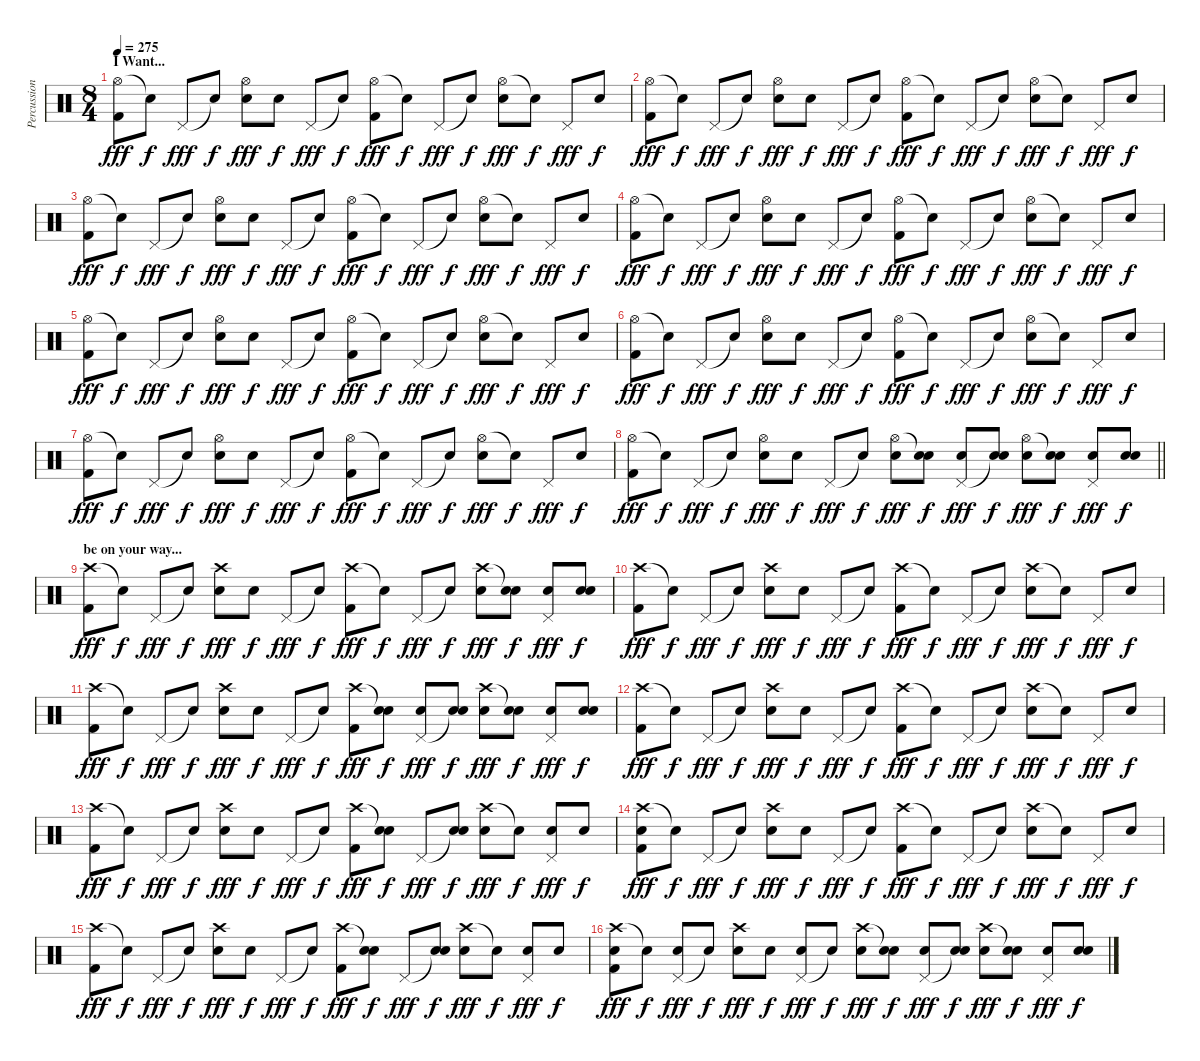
\track ("Percussion" "Percussion") {instrument percussion}
\staff {score}
\articulation defaults
\ts (8 4)
\section ("" "I Want...")
\tempo 275
\clef neutral
\ks c
("Hi-Hat (open)" "Kick (hit) 2").8{dy fff} "Snare (hit)"{t}.8{dy f} "Pedal Hi-Hat (hit)".8{dy fff} "Snare (hit)"{t}.8{dy f} ("Hi-Hat (open)" "Electric Snare (hit)").8{dy fff} "Snare (hit)".8{dy f} "Pedal Hi-Hat (hit)".8{dy fff} "Snare (hit)"{t}.8{dy f} ("Hi-Hat (open)" "Kick (hit) 2").8{dy fff} "Snare (hit)"{t}.8{dy f} "Pedal Hi-Hat (hit)".8{dy fff} "Snare (hit)"{t}.8{dy f} ("Hi-Hat (open)" "Electric Snare (hit)").8{dy fff} "Snare (hit)"{t}.8{dy f} "Pedal Hi-Hat (hit)".8{dy fff} "Snare (hit)".8{dy f} |
("Hi-Hat (open)" "Kick (hit) 2").8{dy fff} "Snare (hit)"{t}.8{dy f} "Pedal Hi-Hat (hit)".8{dy fff} "Snare (hit)"{t}.8{dy f} ("Hi-Hat (open)" "Electric Snare (hit)").8{dy fff} "Snare (hit)".8{dy f} "Pedal Hi-Hat (hit)".8{dy fff} "Snare (hit)"{t}.8{dy f} ("Hi-Hat (open)" "Kick (hit) 2").8{dy fff} "Snare (hit)"{t}.8{dy f} "Pedal Hi-Hat (hit)".8{dy fff} "Snare (hit)"{t}.8{dy f} ("Hi-Hat (open)" "Electric Snare (hit)").8{dy fff} "Snare (hit)"{t}.8{dy f} "Pedal Hi-Hat (hit)".8{dy fff} "Snare (hit)".8{dy f} |
("Hi-Hat (open)" "Kick (hit) 2").8{dy fff} "Snare (hit)"{t}.8{dy f} "Pedal Hi-Hat (hit)".8{dy fff} "Snare (hit)"{t}.8{dy f} ("Hi-Hat (open)" "Electric Snare (hit)").8{dy fff} "Snare (hit)".8{dy f} "Pedal Hi-Hat (hit)".8{dy fff} "Snare (hit)"{t}.8{dy f} ("Hi-Hat (open)" "Kick (hit) 2").8{dy fff} "Snare (hit)"{t}.8{dy f} "Pedal Hi-Hat (hit)".8{dy fff} "Snare (hit)"{t}.8{dy f} ("Hi-Hat (open)" "Electric Snare (hit)").8{dy fff} "Snare (hit)"{t}.8{dy f} "Pedal Hi-Hat (hit)".8{dy fff} "Snare (hit)".8{dy f} |
("Hi-Hat (open)" "Kick (hit) 2").8{dy fff} "Snare (hit)"{t}.8{dy f} "Pedal Hi-Hat (hit)".8{dy fff} "Snare (hit)"{t}.8{dy f} ("Hi-Hat (open)" "Electric Snare (hit)").8{dy fff} "Snare (hit)".8{dy f} "Pedal Hi-Hat (hit)".8{dy fff} "Snare (hit)"{t}.8{dy f} ("Hi-Hat (open)" "Kick (hit) 2").8{dy fff} "Snare (hit)"{t}.8{dy f} "Pedal Hi-Hat (hit)".8{dy fff} "Snare (hit)"{t}.8{dy f} ("Hi-Hat (open)" "Electric Snare (hit)").8{dy fff} "Snare (hit)"{t}.8{dy f} "Pedal Hi-Hat (hit)".8{dy fff} "Snare (hit)".8{dy f} |
("Hi-Hat (open)" "Kick (hit) 2").8{dy fff} "Snare (hit)"{t}.8{dy f} "Pedal Hi-Hat (hit)".8{dy fff} "Snare (hit)"{t}.8{dy f} ("Hi-Hat (open)" "Electric Snare (hit)").8{dy fff} "Snare (hit)".8{dy f} "Pedal Hi-Hat (hit)".8{dy fff} "Snare (hit)"{t}.8{dy f} ("Hi-Hat (open)" "Kick (hit) 2").8{dy fff} "Snare (hit)"{t}.8{dy f} "Pedal Hi-Hat (hit)".8{dy fff} "Snare (hit)"{t}.8{dy f} ("Hi-Hat (open)" "Electric Snare (hit)").8{dy fff} "Snare (hit)"{t}.8{dy f} "Pedal Hi-Hat (hit)".8{dy fff} "Snare (hit)".8{dy f} |
("Hi-Hat (open)" "Kick (hit) 2").8{dy fff} "Snare (hit)"{t}.8{dy f} "Pedal Hi-Hat (hit)".8{dy fff} "Snare (hit)"{t}.8{dy f} ("Hi-Hat (open)" "Electric Snare (hit)").8{dy fff} "Snare (hit)".8{dy f} "Pedal Hi-Hat (hit)".8{dy fff} "Snare (hit)"{t}.8{dy f} ("Hi-Hat (open)" "Kick (hit) 2").8{dy fff} "Snare (hit)"{t}.8{dy f} "Pedal Hi-Hat (hit)".8{dy fff} "Snare (hit)"{t}.8{dy f} ("Hi-Hat (open)" "Electric Snare (hit)").8{dy fff} "Snare (hit)"{t}.8{dy f} "Pedal Hi-Hat (hit)".8{dy fff} "Snare (hit)".8{dy f} |
("Hi-Hat (open)" "Kick (hit) 2").8{dy fff} "Snare (hit)"{t}.8{dy f} "Pedal Hi-Hat (hit)".8{dy fff} "Snare (hit)"{t}.8{dy f} ("Hi-Hat (open)" "Electric Snare (hit)").8{dy fff} "Snare (hit)".8{dy f} "Pedal Hi-Hat (hit)".8{dy fff} "Snare (hit)"{t}.8{dy f} ("Hi-Hat (open)" "Kick (hit) 2").8{dy fff} "Snare (hit)"{t}.8{dy f} "Pedal Hi-Hat (hit)".8{dy fff} "Snare (hit)"{t}.8{dy f} ("Hi-Hat (open)" "Electric Snare (hit)").8{dy fff} "Snare (hit)"{t}.8{dy f} "Pedal Hi-Hat (hit)".8{dy fff} "Snare (hit)".8{dy f} |
\barLineRight lightlight
("Hi-Hat (open)" "Kick (hit) 2").8{dy fff} "Snare (hit)"{t}.8{dy f} "Pedal Hi-Hat (hit)".8{dy fff} "Snare (hit)"{t}.8{dy f} ("Hi-Hat (open)" "Electric Snare (hit)").8{dy fff} "Snare (hit)".8{dy f} "Pedal Hi-Hat (hit)".8{dy fff} "Snare (hit)"{t}.8{dy f} ("Hi-Hat (open)" "Electric Snare (hit)").8{dy fff} ("Snare (hit)"{t} "Electric Snare (hit)").8{dy f} ("Pedal Hi-Hat (hit)" "Electric Snare (hit)").8{dy fff} ("Snare (hit)"{t} "Electric Snare (hit)").8{dy f} ("Hi-Hat (open)" "Electric Snare (hit)").8{dy fff} ("Snare (hit)"{t} "Electric Snare (hit)").8{dy f} ("Pedal Hi-Hat (hit)" "Electric Snare (hit)").8{dy fff} ("Snare (hit)" "Electric Snare (hit)").8{dy f} |
\section ("" "be on your way...")
("Crash high (hit)" "Kick (hit) 2").8{dy fff} "Snare (hit)"{t}.8{dy f} "Pedal Hi-Hat (hit)".8{dy fff} "Snare (hit)"{t}.8{dy f} ("Crash high (hit)" "Electric Snare (hit)").8{dy fff} "Snare (hit)".8{dy f} "Pedal Hi-Hat (hit)".8{dy fff} "Snare (hit)"{t}.8{dy f} ("Crash high (hit)" "Kick (hit) 2").8{dy fff} "Snare (hit)"{t}.8{dy f} "Pedal Hi-Hat (hit)".8{dy fff} "Snare (hit)"{t}.8{dy f} ("Crash high (hit)" "Electric Snare (hit)").8{dy fff} ("Snare (hit)"{t} "Electric Snare (hit)").8{dy f} ("Pedal Hi-Hat (hit)" "Electric Snare (hit)").8{dy fff} ("Snare (hit)" "Electric Snare (hit)").8{dy f} |
("Crash high (hit)" "Kick (hit) 2").8{dy fff} "Snare (hit)"{t}.8{dy f} "Pedal Hi-Hat (hit)".8{dy fff} "Snare (hit)"{t}.8{dy f} ("Crash high (hit)" "Electric Snare (hit)").8{dy fff} "Snare (hit)".8{dy f} "Pedal Hi-Hat (hit)".8{dy fff} "Snare (hit)"{t}.8{dy f} ("Crash high (hit)" "Kick (hit) 2").8{dy fff} "Snare (hit)"{t}.8{dy f} "Pedal Hi-Hat (hit)".8{dy fff} "Snare (hit)"{t}.8{dy f} ("Crash high (hit)" "Electric Snare (hit)").8{dy fff} "Snare (hit)"{t}.8{dy f} "Pedal Hi-Hat (hit)".8{dy fff} "Snare (hit)".8{dy f} |
("Crash high (hit)" "Kick (hit) 2").8{dy fff} "Snare (hit)"{t}.8{dy f} "Pedal Hi-Hat (hit)".8{dy fff} "Snare (hit)"{t}.8{dy f} ("Crash high (hit)" "Electric Snare (hit)").8{dy fff} "Snare (hit)".8{dy f} "Pedal Hi-Hat (hit)".8{dy fff} "Snare (hit)"{t}.8{dy f} ("Crash high (hit)" "Kick (hit) 2").8{dy fff} ("Snare (hit)"{t} "Electric Snare (hit)").8{dy f} ("Pedal Hi-Hat (hit)" "Electric Snare (hit)").8{dy fff} ("Snare (hit)"{t} "Electric Snare (hit)").8{dy f} ("Crash high (hit)" "Electric Snare (hit)").8{dy fff} ("Snare (hit)"{t} "Electric Snare (hit)").8{dy f} ("Pedal Hi-Hat (hit)" "Electric Snare (hit)").8{dy fff} ("Snare (hit)" "Electric Snare (hit)").8{dy f} |
("Crash high (hit)" "Kick (hit) 2").8{dy fff} "Snare (hit)"{t}.8{dy f} "Pedal Hi-Hat (hit)".8{dy fff} "Snare (hit)"{t}.8{dy f} ("Crash high (hit)" "Electric Snare (hit)").8{dy fff} "Snare (hit)".8{dy f} "Pedal Hi-Hat (hit)".8{dy fff} "Snare (hit)"{t}.8{dy f} ("Crash high (hit)" "Kick (hit) 2").8{dy fff} "Snare (hit)"{t}.8{dy f} "Pedal Hi-Hat (hit)".8{dy fff} "Snare (hit)"{t}.8{dy f} ("Crash high (hit)" "Electric Snare (hit)").8{dy fff} "Snare (hit)"{t}.8{dy f} "Pedal Hi-Hat (hit)".8{dy fff} "Snare (hit)".8{dy f} |
("Crash high (hit)" "Kick (hit) 2").8{dy fff} "Snare (hit)"{t}.8{dy f} "Pedal Hi-Hat (hit)".8{dy fff} "Snare (hit)"{t}.8{dy f} ("Crash high (hit)" "Electric Snare (hit)").8{dy fff} "Snare (hit)".8{dy f} "Pedal Hi-Hat (hit)".8{dy fff} "Snare (hit)"{t}.8{dy f} ("Crash high (hit)" "Kick (hit) 2").8{dy fff} ("Snare (hit)"{t} "Electric Snare (hit)").8{dy f} "Pedal Hi-Hat (hit)".8{dy fff} ("Snare (hit)"{t} "Electric Snare (hit)").8{dy f} ("Crash high (hit)" "Electric Snare (hit)").8{dy fff} "Snare (hit)"{t}.8{dy f} ("Pedal Hi-Hat (hit)" "Electric Snare (hit)").8{dy fff} "Snare (hit)".8{dy f} |
("Crash high (hit)" "Electric Snare (hit)" "Kick (hit) 2").8{dy fff} "Snare (hit)"{t}.8{dy f} "Pedal Hi-Hat (hit)".8{dy fff} "Snare (hit)"{t}.8{dy f} ("Crash high (hit)" "Electric Snare (hit)").8{dy fff} "Snare (hit)".8{dy f} "Pedal Hi-Hat (hit)".8{dy fff} "Snare (hit)"{t}.8{dy f} ("Crash high (hit)" "Kick (hit) 2").8{dy fff} "Snare (hit)"{t}.8{dy f} "Pedal Hi-Hat (hit)".8{dy fff} "Snare (hit)"{t}.8{dy f} ("Crash high (hit)" "Electric Snare (hit)").8{dy fff} "Snare (hit)"{t}.8{dy f} "Pedal Hi-Hat (hit)".8{dy fff} "Snare (hit)".8{dy f} |
("Crash high (hit)" "Kick (hit) 2").8{dy fff} "Snare (hit)"{t}.8{dy f} "Pedal Hi-Hat (hit)".8{dy fff} "Snare (hit)"{t}.8{dy f} ("Crash high (hit)" "Electric Snare (hit)").8{dy fff} "Snare (hit)".8{dy f} "Pedal Hi-Hat (hit)".8{dy fff} "Snare (hit)"{t}.8{dy f} ("Crash high (hit)" "Kick (hit) 2").8{dy fff} ("Snare (hit)"{t} "Electric Snare (hit)").8{dy f} "Pedal Hi-Hat (hit)".8{dy fff} ("Snare (hit)"{t} "Electric Snare (hit)").8{dy f} ("Crash high (hit)" "Electric Snare (hit)").8{dy fff} "Snare (hit)"{t}.8{dy f} ("Pedal Hi-Hat (hit)" "Electric Snare (hit)").8{dy fff} "Snare (hit)".8{dy f} |
("Crash high (hit)" "Electric Snare (hit)" "Kick (hit) 2").8{dy fff} "Snare (hit)"{t}.8{dy f} ("Pedal Hi-Hat (hit)" "Electric Snare (hit)").8{dy fff} "Snare (hit)"{t}.8{dy f} ("Crash high (hit)" "Electric Snare (hit)").8{dy fff} "Snare (hit)".8{dy f} ("Pedal Hi-Hat (hit)" "Electric Snare (hit)").8{dy fff} "Snare (hit)"{t}.8{dy f} ("Crash high (hit)" "Electric Snare (hit)").8{dy fff} ("Snare (hit)"{t} "Electric Snare (hit)").8{dy f} ("Pedal Hi-Hat (hit)" "Electric Snare (hit)").8{dy fff} ("Snare (hit)"{t} "Electric Snare (hit)").8{dy f} ("Crash high (hit)" "Electric Snare (hit)").8{dy fff} ("Snare (hit)"{t} "Electric Snare (hit)").8{dy f} ("Pedal Hi-Hat (hit)" "Electric Snare (hit)").8{dy fff} ("Snare (hit)" "Electric Snare (hit)").8{dy f}
